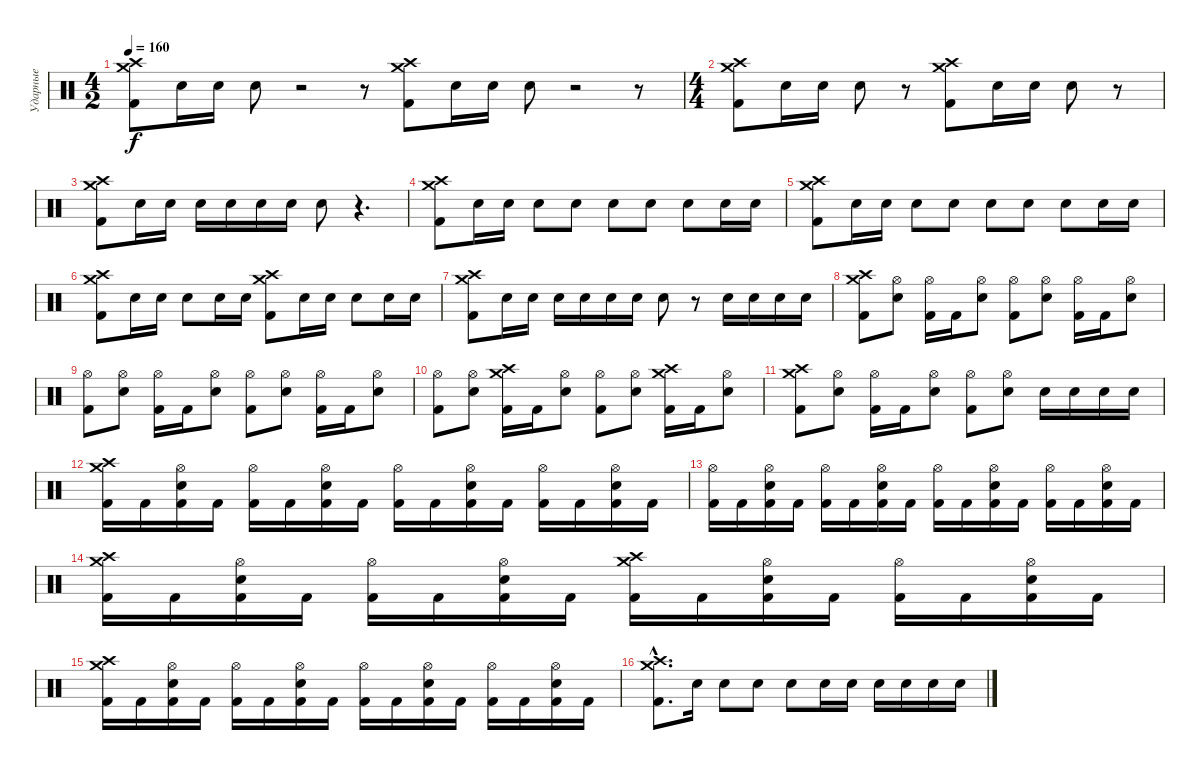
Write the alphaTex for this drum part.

\track ("Ударные" "Ударные") {instrument percussion}
\staff {score}
\articulation defaults
\ts (4 2)
\tempo 160
\clef neutral
\ks c
("Kick (hit) 2" "Crash high (hit)" "Crash medium (hit)").8{dy f} "Electric Snare (hit)".16 "Electric Snare (hit)".16 "Electric Snare (hit)".8 r.2 r.8 ("Kick (hit) 2" "Crash high (hit)" "Crash medium (hit)").8 "Electric Snare (hit)".16 "Electric Snare (hit)".16 "Electric Snare (hit)".8 r.2 r.8 |
\ts (4 4)
("Kick (hit) 2" "Crash high (hit)" "Crash medium (hit)").8 "Electric Snare (hit)".16 "Electric Snare (hit)".16 "Electric Snare (hit)".8 r.8 ("Kick (hit) 2" "Crash high (hit)" "Crash medium (hit)").8 "Electric Snare (hit)".16 "Electric Snare (hit)".16 "Electric Snare (hit)".8 r.8 |
("Kick (hit) 2" "Crash high (hit)" "Crash medium (hit)").8 "Electric Snare (hit)".16 "Electric Snare (hit)".16 "Electric Snare (hit)".16 "Electric Snare (hit)".16 "Electric Snare (hit)".16 "Electric Snare (hit)".16 "Electric Snare (hit)".8 r.4{d} |
("Kick (hit) 2" "Crash high (hit)" "Crash medium (hit)").8 "Electric Snare (hit)".16 "Electric Snare (hit)".16 "Electric Snare (hit)".8 "Electric Snare (hit)".8 "Electric Snare (hit)".8 "Electric Snare (hit)".8 "Electric Snare (hit)".8 "Electric Snare (hit)".16 "Electric Snare (hit)".16 |
("Kick (hit) 2" "Crash medium (hit)" "Crash high (hit)").8 "Electric Snare (hit)".16 "Electric Snare (hit)".16 "Electric Snare (hit)".8 "Electric Snare (hit)".8 "Electric Snare (hit)".8 "Electric Snare (hit)".8 "Electric Snare (hit)".8 "Electric Snare (hit)".16 "Electric Snare (hit)".16 |
("Kick (hit) 2" "Crash high (hit)" "Crash medium (hit)").8 "Electric Snare (hit)".16 "Electric Snare (hit)".16 "Electric Snare (hit)".8 "Electric Snare (hit)".16 "Electric Snare (hit)".16 ("Kick (hit) 2" "Crash high (hit)" "Crash medium (hit)").8 "Electric Snare (hit)".16 "Electric Snare (hit)".16 "Electric Snare (hit)".8 "Electric Snare (hit)".16 "Electric Snare (hit)".16 |
("Kick (hit) 2" "Crash high (hit)" "Crash medium (hit)").8 "Electric Snare (hit)".16 "Electric Snare (hit)".16 "Electric Snare (hit)".16 "Electric Snare (hit)".16 "Electric Snare (hit)".16 "Electric Snare (hit)".16 "Electric Snare (hit)".8 r.8 "Electric Snare (hit)".16 "Electric Snare (hit)".16 "Electric Snare (hit)".16 "Electric Snare (hit)".16 |
("Kick (hit) 2" "Crash high (hit)" "Crash medium (hit)").8 ("Electric Snare (hit)" "Hi-Hat (open)").8 ("Kick (hit) 2" "Hi-Hat (open)").16 "Kick (hit) 2".16 ("Electric Snare (hit)" "Hi-Hat (open)").8 ("Kick (hit) 2" "Hi-Hat (open)").8 ("Electric Snare (hit)" "Hi-Hat (open)").8 ("Kick (hit) 2" "Hi-Hat (open)").16 "Kick (hit) 2".16 ("Electric Snare (hit)" "Hi-Hat (open)").8 |
("Kick (hit) 2" "Hi-Hat (open)").8 ("Electric Snare (hit)" "Hi-Hat (open)").8 ("Kick (hit) 2" "Hi-Hat (open)").16 "Kick (hit) 2".16 ("Electric Snare (hit)" "Hi-Hat (open)").8 ("Kick (hit) 2" "Hi-Hat (open)").8 ("Electric Snare (hit)" "Hi-Hat (open)").8 ("Kick (hit) 2" "Hi-Hat (open)").16 "Kick (hit) 2".16 ("Electric Snare (hit)" "Hi-Hat (open)").8 |
("Kick (hit) 2" "Hi-Hat (open)").8 ("Electric Snare (hit)" "Hi-Hat (open)").8 ("Kick (hit) 2" "Crash high (hit)" "Crash medium (hit)").16 "Kick (hit) 2".16 ("Electric Snare (hit)" "Hi-Hat (open)").8 ("Kick (hit) 2" "Hi-Hat (open)").8 ("Electric Snare (hit)" "Hi-Hat (open)").8 ("Kick (hit) 2" "Crash high (hit)" "Crash medium (hit)").16 "Kick (hit) 2".16 ("Electric Snare (hit)" "Hi-Hat (open)").8 |
("Kick (hit) 2" "Crash high (hit)" "Crash medium (hit)").8 ("Electric Snare (hit)" "Hi-Hat (open)").8 ("Kick (hit) 2" "Hi-Hat (open)").16 "Kick (hit) 2".16 ("Electric Snare (hit)" "Hi-Hat (open)").8 ("Kick (hit) 2" "Hi-Hat (open)").8 ("Electric Snare (hit)" "Hi-Hat (open)").8 "Electric Snare (hit)".16 "Electric Snare (hit)".16 "Electric Snare (hit)".16 "Electric Snare (hit)".16 |
("Kick (hit) 2" "Crash high (hit)" "Crash medium (hit)").16 "Kick (hit) 2".16 ("Kick (hit) 2" "Electric Snare (hit)" "Hi-Hat (open)").16 "Kick (hit) 2".16 ("Kick (hit) 2" "Hi-Hat (open)").16 "Kick (hit) 2".16 ("Kick (hit) 2" "Electric Snare (hit)" "Hi-Hat (open)").16 "Kick (hit) 2".16 ("Kick (hit) 2" "Hi-Hat (open)").16 "Kick (hit) 2".16 ("Kick (hit) 2" "Electric Snare (hit)" "Hi-Hat (open)").16 "Kick (hit) 2".16 ("Kick (hit) 2" "Hi-Hat (open)").16 "Kick (hit) 2".16 ("Kick (hit) 2" "Electric Snare (hit)" "Hi-Hat (open)").16 "Kick (hit) 2".16 |
("Kick (hit) 2" "Hi-Hat (open)").16 "Kick (hit) 2".16 ("Kick (hit) 2" "Electric Snare (hit)" "Hi-Hat (open)").16 "Kick (hit) 2".16 ("Kick (hit) 2" "Hi-Hat (open)").16 "Kick (hit) 2".16 ("Kick (hit) 2" "Electric Snare (hit)" "Hi-Hat (open)").16 "Kick (hit) 2".16 ("Kick (hit) 2" "Hi-Hat (open)").16 "Kick (hit) 2".16 ("Kick (hit) 2" "Electric Snare (hit)" "Hi-Hat (open)").16 "Kick (hit) 2".16 ("Kick (hit) 2" "Hi-Hat (open)").16 "Kick (hit) 2".16 ("Kick (hit) 2" "Electric Snare (hit)" "Hi-Hat (open)").16 "Kick (hit) 2".16 |
("Kick (hit) 2" "Crash high (hit)" "Crash medium (hit)").16 "Kick (hit) 2".16 ("Kick (hit) 2" "Electric Snare (hit)" "Hi-Hat (open)").16 "Kick (hit) 2".16 ("Kick (hit) 2" "Hi-Hat (open)").16 "Kick (hit) 2".16 ("Kick (hit) 2" "Electric Snare (hit)" "Hi-Hat (open)").16 "Kick (hit) 2".16 ("Kick (hit) 2" "Crash high (hit)" "Crash medium (hit)").16 "Kick (hit) 2".16 ("Kick (hit) 2" "Electric Snare (hit)" "Hi-Hat (open)").16 "Kick (hit) 2".16 ("Kick (hit) 2" "Hi-Hat (open)").16 "Kick (hit) 2".16 ("Kick (hit) 2" "Electric Snare (hit)" "Hi-Hat (open)").16 "Kick (hit) 2".16 |
("Kick (hit) 2" "Crash high (hit)" "Crash medium (hit)").16 "Kick (hit) 2".16 ("Kick (hit) 2" "Electric Snare (hit)" "Hi-Hat (open)").16 "Kick (hit) 2".16 ("Kick (hit) 2" "Hi-Hat (open)").16 "Kick (hit) 2".16 ("Kick (hit) 2" "Electric Snare (hit)" "Hi-Hat (open)").16 "Kick (hit) 2".16 ("Kick (hit) 2" "Hi-Hat (open)").16 "Kick (hit) 2".16 ("Kick (hit) 2" "Electric Snare (hit)" "Hi-Hat (open)").16 "Kick (hit) 2".16 ("Kick (hit) 2" "Hi-Hat (open)").16 "Kick (hit) 2".16 ("Kick (hit) 2" "Electric Snare (hit)" "Hi-Hat (open)").16 "Kick (hit) 2".16 |
("Kick (hit) 2"{hac} "Crash high (hit)"{hac} "Crash medium (hit)"{hac}).8{d} "Electric Snare (hit)".16 "Electric Snare (hit)".8 "Electric Snare (hit)".8 "Electric Snare (hit)".8 "Electric Snare (hit)".16 "Electric Snare (hit)".16 "Electric Snare (hit)".16 "Electric Snare (hit)".16 "Electric Snare (hit)".16 "Electric Snare (hit)".16
